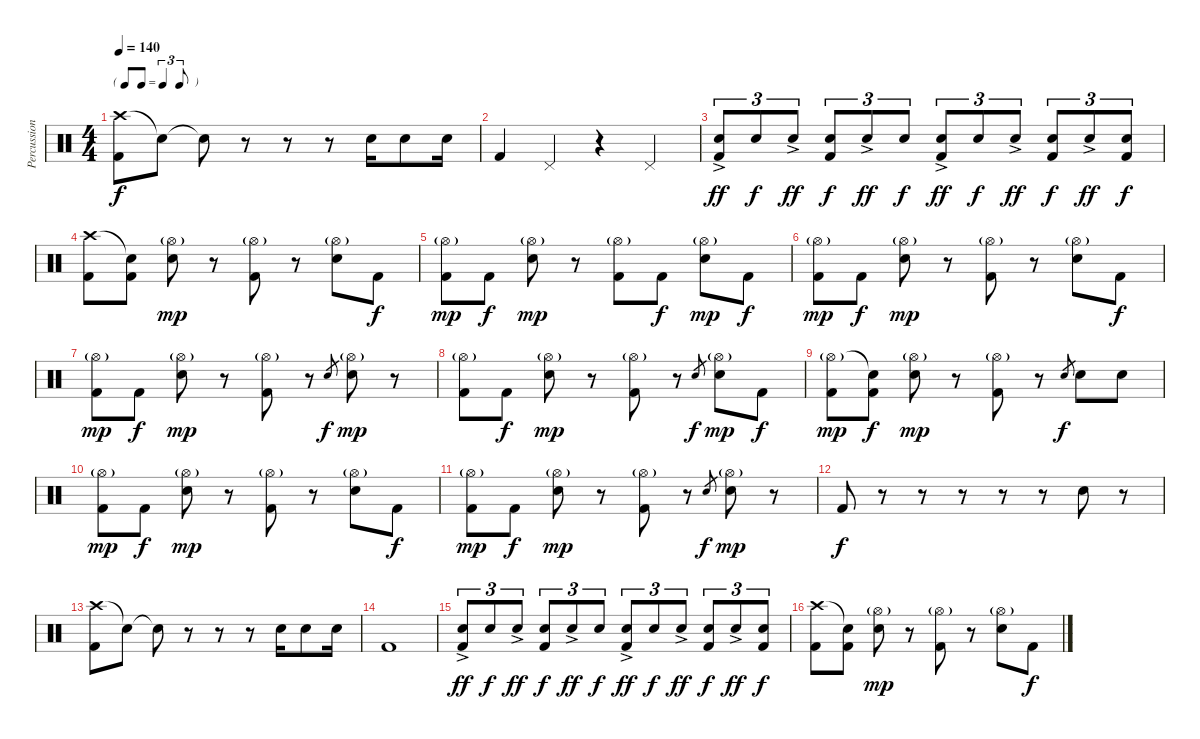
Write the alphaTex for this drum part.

\track ("Percussion" "Percussion") {instrument percussion}
\staff {score}
\articulation defaults
\ts (4 4)
\tf triplet8th
\tempo 140
\clef neutral
\ks c
("Crash high (hit)" "Kick (hit) 2").8{dy f} "Snare (hit)"{t}.8 "Snare (hit)"{t}.8 r.8 r.8 r.8 "Snare (hit) 2".16 "Snare (hit) 2".8 "Snare (hit) 2".16 |
"Kick (hit) 2".4 "Pedal Hi-Hat (hit)".4 r.4 "Pedal Hi-Hat (hit)".4 |
("Snare (hit) 2"{ac} "Kick (hit) 2").8{tu (3 2) dy ff} "Snare (hit) 2".8{tu (3 2) dy f} "Snare (hit) 2"{ac}.8{tu (3 2) dy ff} ("Snare (hit) 2" "Kick (hit) 2").8{tu (3 2) dy f} "Snare (hit) 2"{ac}.8{tu (3 2) dy ff} "Snare (hit) 2".8{tu (3 2) dy f} ("Snare (hit) 2"{ac} "Kick (hit) 2").8{tu (3 2) dy ff} "Snare (hit) 2".8{tu (3 2) dy f} "Snare (hit) 2"{ac}.8{tu (3 2) dy ff} ("Snare (hit) 2" "Kick (hit) 2").8{tu (3 2) dy f} "Snare (hit) 2"{ac}.8{tu (3 2) dy ff} ("Snare (hit) 2" "Kick (hit) 2").8{tu (3 2) dy f} |
("Crash high (hit)" "Kick (hit) 2").8 ("Snare (hit)"{t} "Kick (hit) 2").8 ("Hi-Hat (open)"{g} "Snare (hit) 2").8{dy mp} r.8 ("Hi-Hat (open)"{g} "Kick (hit) 2").8 r.8 ("Hi-Hat (open)"{g} "Snare (hit) 2").8 "Kick (hit) 2".8{dy f} |
("Hi-Hat (open)"{g} "Kick (hit) 2").8{dy mp} "Kick (hit) 2".8{dy f} ("Hi-Hat (open)"{g} "Snare (hit) 2").8{dy mp} r.8 ("Hi-Hat (open)"{g} "Kick (hit) 2").8 "Kick (hit) 2".8{dy f} ("Hi-Hat (open)"{g} "Snare (hit) 2").8{dy mp} "Kick (hit) 2".8{dy f} |
("Hi-Hat (open)"{g} "Kick (hit) 2").8{dy mp} "Kick (hit) 2".8{dy f} ("Hi-Hat (open)"{g} "Snare (hit) 2").8{dy mp} r.8 ("Hi-Hat (open)"{g} "Kick (hit) 2").8 r.8 ("Hi-Hat (open)"{g} "Snare (hit) 2").8 "Kick (hit) 2".8{dy f} |
("Hi-Hat (open)"{g} "Kick (hit) 2").8{dy mp} "Kick (hit) 2".8{dy f} ("Hi-Hat (open)"{g} "Snare (hit) 2").8{dy mp} r.8 ("Hi-Hat (open)"{g} "Kick (hit) 2").8 r.8 "Snare (hit) 2".8{gr dy f} ("Hi-Hat (open)"{g} "Snare (hit) 2").8{dy mp} r.8 |
("Hi-Hat (open)"{g} "Kick (hit) 2").8 "Kick (hit) 2".8{dy f} ("Hi-Hat (open)"{g} "Snare (hit) 2").8{dy mp} r.8 ("Hi-Hat (open)"{g} "Kick (hit) 2").8 r.8 "Snare (hit) 2".8{gr dy f} ("Hi-Hat (open)"{g} "Snare (hit) 2").8{dy mp} "Kick (hit) 2".8{dy f} |
("Hi-Hat (open)"{g} "Kick (hit) 2").8{dy mp} ("Snare (hit)"{t} "Kick (hit) 2").8{dy f} ("Hi-Hat (open)"{g} "Snare (hit) 2").8{dy mp} r.8 ("Hi-Hat (open)"{g} "Kick (hit) 2").8 r.8 "Snare (hit) 2".8{gr dy f} "Snare (hit) 2".8 "Snare (hit) 2".8 |
("Hi-Hat (open)"{g} "Kick (hit) 2").8{dy mp} "Kick (hit) 2".8{dy f} ("Hi-Hat (open)"{g} "Snare (hit) 2").8{dy mp} r.8 ("Hi-Hat (open)"{g} "Kick (hit) 2").8 r.8 ("Hi-Hat (open)"{g} "Snare (hit) 2").8 "Kick (hit) 2".8{dy f} |
("Hi-Hat (open)"{g} "Kick (hit) 2").8{dy mp} "Kick (hit) 2".8{dy f} ("Hi-Hat (open)"{g} "Snare (hit) 2").8{dy mp} r.8 ("Hi-Hat (open)"{g} "Kick (hit) 2").8 r.8 "Snare (hit) 2".8{gr dy f} ("Hi-Hat (open)"{g} "Snare (hit) 2").8{dy mp} r.8 |
"Kick (hit) 2".8{dy f} r.8 r.8 r.8 r.8 r.8 "Snare (hit) 2".8 r.8 |
("Crash high (hit)" "Kick (hit) 2").8 "Snare (hit)"{t}.8 "Snare (hit)"{t}.8 r.8 r.8 r.8 "Snare (hit) 2".16 "Snare (hit) 2".8 "Snare (hit) 2".16 |
"Kick (hit) 2".1 |
("Snare (hit) 2"{ac} "Kick (hit) 2").8{tu (3 2) dy ff} "Snare (hit) 2".8{tu (3 2) dy f} "Snare (hit) 2"{ac}.8{tu (3 2) dy ff} ("Snare (hit) 2" "Kick (hit) 2").8{tu (3 2) dy f} "Snare (hit) 2"{ac}.8{tu (3 2) dy ff} "Snare (hit) 2".8{tu (3 2) dy f} ("Snare (hit) 2"{ac} "Kick (hit) 2").8{tu (3 2) dy ff} "Snare (hit) 2".8{tu (3 2) dy f} "Snare (hit) 2"{ac}.8{tu (3 2) dy ff} ("Snare (hit) 2" "Kick (hit) 2").8{tu (3 2) dy f} "Snare (hit) 2"{ac}.8{tu (3 2) dy ff} ("Snare (hit) 2" "Kick (hit) 2").8{tu (3 2) dy f} |
("Crash high (hit)" "Kick (hit) 2").8 ("Snare (hit)"{t} "Kick (hit) 2").8 ("Hi-Hat (open)"{g} "Snare (hit) 2").8{dy mp} r.8 ("Hi-Hat (open)"{g} "Kick (hit) 2").8 r.8 ("Hi-Hat (open)"{g} "Snare (hit) 2").8 "Kick (hit) 2".8{dy f}
